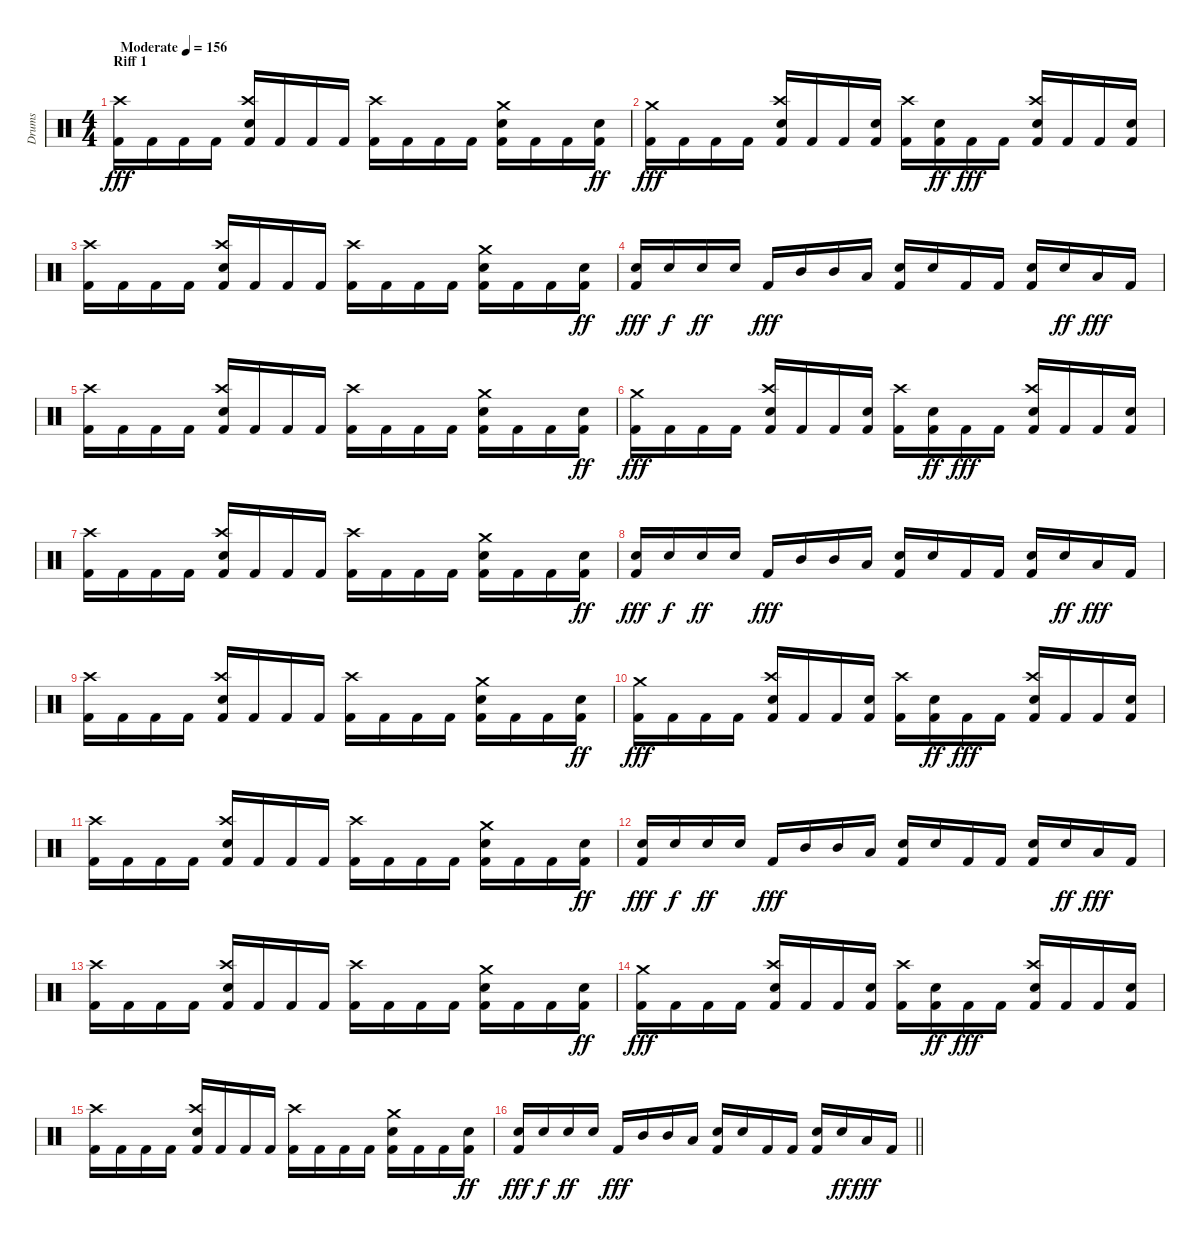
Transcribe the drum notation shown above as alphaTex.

\track ("Drums" "Drums") {instrument percussion}
\staff {score}
\articulation defaults
\ts (4 4)
\section ("" "Riff 1")
\tempo (156 "Moderate")
\clef neutral
\ks c
("Kick (hit) 2" "Crash high (hit)").16{dy fff} "Kick (hit) 2".16 "Kick (hit) 2".16 "Kick (hit) 2".16 ("Kick (hit) 2" "Snare (hit) 2" "Crash high (hit)").16 "Kick (hit) 2".16 "Kick (hit) 2".16 "Kick (hit) 2".16 ("Kick (hit) 2" "Crash high (hit)").16 "Kick (hit) 2".16 "Kick (hit) 2".16 "Kick (hit) 2".16 ("Kick (hit) 2" "Snare (hit) 2" "Crash medium (hit)").16 "Kick (hit) 2".16 "Kick (hit) 2".16 ("Kick (hit) 2" "Snare (hit) 2").16{dy ff} |
("Kick (hit) 2" "Crash medium (hit)").16{dy fff} "Kick (hit) 2".16 "Kick (hit) 2".16 "Kick (hit) 2".16 ("Kick (hit) 2" "Snare (hit) 2" "Crash high (hit)").16 "Kick (hit) 2".16 "Kick (hit) 2".16 ("Kick (hit) 2" "Snare (hit) 2").16 ("Kick (hit) 2" "Crash high (hit)").16 ("Kick (hit) 2" "Snare (hit) 2").16{dy ff} "Kick (hit) 2".16{dy fff} "Kick (hit) 2".16 ("Kick (hit) 2" "Snare (hit) 2" "Crash high (hit)").16 "Kick (hit) 2".16 "Kick (hit) 2".16 ("Kick (hit) 2" "Snare (hit) 2").16 |
("Kick (hit) 2" "Crash high (hit)").16 "Kick (hit) 2".16 "Kick (hit) 2".16 "Kick (hit) 2".16 ("Kick (hit) 2" "Snare (hit) 2" "Crash high (hit)").16 "Kick (hit) 2".16 "Kick (hit) 2".16 "Kick (hit) 2".16 ("Kick (hit) 2" "Crash high (hit)").16 "Kick (hit) 2".16 "Kick (hit) 2".16 "Kick (hit) 2".16 ("Kick (hit) 2" "Snare (hit) 2" "Crash medium (hit)").16 "Kick (hit) 2".16 "Kick (hit) 2".16 ("Kick (hit) 2" "Snare (hit) 2").16{dy ff} |
("Kick (hit) 2" "Snare (hit) 2").16{dy fff} "Snare (hit) 2".16{dy f} "Snare (hit) 2".16{dy ff} "Snare (hit) 2".16 "Kick (hit) 2".16{dy fff} "Mid Tom (hit)".16 "Mid Tom (hit)".16 "Low Tom (hit)".16 ("Kick (hit) 2" "Snare (hit) 2").16 "Snare (hit) 2".16 "Kick (hit) 2".16 "Kick (hit) 2".16 ("Kick (hit) 2" "Snare (hit) 2").16 "Snare (hit) 2".16{dy ff} "Low Tom (hit)".16{dy fff} "Kick (hit) 2".16 |
("Kick (hit) 2" "Crash high (hit)").16 "Kick (hit) 2".16 "Kick (hit) 2".16 "Kick (hit) 2".16 ("Kick (hit) 2" "Snare (hit) 2" "Crash high (hit)").16 "Kick (hit) 2".16 "Kick (hit) 2".16 "Kick (hit) 2".16 ("Kick (hit) 2" "Crash high (hit)").16 "Kick (hit) 2".16 "Kick (hit) 2".16 "Kick (hit) 2".16 ("Kick (hit) 2" "Snare (hit) 2" "Crash medium (hit)").16 "Kick (hit) 2".16 "Kick (hit) 2".16 ("Kick (hit) 2" "Snare (hit) 2").16{dy ff} |
("Kick (hit) 2" "Crash medium (hit)").16{dy fff} "Kick (hit) 2".16 "Kick (hit) 2".16 "Kick (hit) 2".16 ("Kick (hit) 2" "Snare (hit) 2" "Crash high (hit)").16 "Kick (hit) 2".16 "Kick (hit) 2".16 ("Kick (hit) 2" "Snare (hit) 2").16 ("Kick (hit) 2" "Crash high (hit)").16 ("Kick (hit) 2" "Snare (hit) 2").16{dy ff} "Kick (hit) 2".16{dy fff} "Kick (hit) 2".16 ("Kick (hit) 2" "Snare (hit) 2" "Crash high (hit)").16 "Kick (hit) 2".16 "Kick (hit) 2".16 ("Kick (hit) 2" "Snare (hit) 2").16 |
("Kick (hit) 2" "Crash high (hit)").16 "Kick (hit) 2".16 "Kick (hit) 2".16 "Kick (hit) 2".16 ("Kick (hit) 2" "Snare (hit) 2" "Crash high (hit)").16 "Kick (hit) 2".16 "Kick (hit) 2".16 "Kick (hit) 2".16 ("Kick (hit) 2" "Crash high (hit)").16 "Kick (hit) 2".16 "Kick (hit) 2".16 "Kick (hit) 2".16 ("Kick (hit) 2" "Snare (hit) 2" "Crash medium (hit)").16 "Kick (hit) 2".16 "Kick (hit) 2".16 ("Kick (hit) 2" "Snare (hit) 2").16{dy ff} |
("Kick (hit) 2" "Snare (hit) 2").16{dy fff} "Snare (hit) 2".16{dy f} "Snare (hit) 2".16{dy ff} "Snare (hit) 2".16 "Kick (hit) 2".16{dy fff} "Mid Tom (hit)".16 "Mid Tom (hit)".16 "Low Tom (hit)".16 ("Kick (hit) 2" "Snare (hit) 2").16 "Snare (hit) 2".16 "Kick (hit) 2".16 "Kick (hit) 2".16 ("Kick (hit) 2" "Snare (hit) 2").16 "Snare (hit) 2".16{dy ff} "Low Tom (hit)".16{dy fff} "Kick (hit) 2".16 |
("Kick (hit) 2" "Crash high (hit)").16 "Kick (hit) 2".16 "Kick (hit) 2".16 "Kick (hit) 2".16 ("Kick (hit) 2" "Snare (hit) 2" "Crash high (hit)").16 "Kick (hit) 2".16 "Kick (hit) 2".16 "Kick (hit) 2".16 ("Kick (hit) 2" "Crash high (hit)").16 "Kick (hit) 2".16 "Kick (hit) 2".16 "Kick (hit) 2".16 ("Kick (hit) 2" "Snare (hit) 2" "Crash medium (hit)").16 "Kick (hit) 2".16 "Kick (hit) 2".16 ("Kick (hit) 2" "Snare (hit) 2").16{dy ff} |
("Kick (hit) 2" "Crash medium (hit)").16{dy fff} "Kick (hit) 2".16 "Kick (hit) 2".16 "Kick (hit) 2".16 ("Kick (hit) 2" "Snare (hit) 2" "Crash high (hit)").16 "Kick (hit) 2".16 "Kick (hit) 2".16 ("Kick (hit) 2" "Snare (hit) 2").16 ("Kick (hit) 2" "Crash high (hit)").16 ("Kick (hit) 2" "Snare (hit) 2").16{dy ff} "Kick (hit) 2".16{dy fff} "Kick (hit) 2".16 ("Kick (hit) 2" "Snare (hit) 2" "Crash high (hit)").16 "Kick (hit) 2".16 "Kick (hit) 2".16 ("Kick (hit) 2" "Snare (hit) 2").16 |
("Kick (hit) 2" "Crash high (hit)").16 "Kick (hit) 2".16 "Kick (hit) 2".16 "Kick (hit) 2".16 ("Kick (hit) 2" "Snare (hit) 2" "Crash high (hit)").16 "Kick (hit) 2".16 "Kick (hit) 2".16 "Kick (hit) 2".16 ("Kick (hit) 2" "Crash high (hit)").16 "Kick (hit) 2".16 "Kick (hit) 2".16 "Kick (hit) 2".16 ("Kick (hit) 2" "Snare (hit) 2" "Crash medium (hit)").16 "Kick (hit) 2".16 "Kick (hit) 2".16 ("Kick (hit) 2" "Snare (hit) 2").16{dy ff} |
("Kick (hit) 2" "Snare (hit) 2").16{dy fff} "Snare (hit) 2".16{dy f} "Snare (hit) 2".16{dy ff} "Snare (hit) 2".16 "Kick (hit) 2".16{dy fff} "Mid Tom (hit)".16 "Mid Tom (hit)".16 "Low Tom (hit)".16 ("Kick (hit) 2" "Snare (hit) 2").16 "Snare (hit) 2".16 "Kick (hit) 2".16 "Kick (hit) 2".16 ("Kick (hit) 2" "Snare (hit) 2").16 "Snare (hit) 2".16{dy ff} "Low Tom (hit)".16{dy fff} "Kick (hit) 2".16 |
("Kick (hit) 2" "Crash high (hit)").16 "Kick (hit) 2".16 "Kick (hit) 2".16 "Kick (hit) 2".16 ("Kick (hit) 2" "Snare (hit) 2" "Crash high (hit)").16 "Kick (hit) 2".16 "Kick (hit) 2".16 "Kick (hit) 2".16 ("Kick (hit) 2" "Crash high (hit)").16 "Kick (hit) 2".16 "Kick (hit) 2".16 "Kick (hit) 2".16 ("Kick (hit) 2" "Snare (hit) 2" "Crash medium (hit)").16 "Kick (hit) 2".16 "Kick (hit) 2".16 ("Kick (hit) 2" "Snare (hit) 2").16{dy ff} |
("Kick (hit) 2" "Crash medium (hit)").16{dy fff} "Kick (hit) 2".16 "Kick (hit) 2".16 "Kick (hit) 2".16 ("Kick (hit) 2" "Snare (hit) 2" "Crash high (hit)").16 "Kick (hit) 2".16 "Kick (hit) 2".16 ("Kick (hit) 2" "Snare (hit) 2").16 ("Kick (hit) 2" "Crash high (hit)").16 ("Kick (hit) 2" "Snare (hit) 2").16{dy ff} "Kick (hit) 2".16{dy fff} "Kick (hit) 2".16 ("Kick (hit) 2" "Snare (hit) 2" "Crash high (hit)").16 "Kick (hit) 2".16 "Kick (hit) 2".16 ("Kick (hit) 2" "Snare (hit) 2").16 |
("Kick (hit) 2" "Crash high (hit)").16 "Kick (hit) 2".16 "Kick (hit) 2".16 "Kick (hit) 2".16 ("Kick (hit) 2" "Snare (hit) 2" "Crash high (hit)").16 "Kick (hit) 2".16 "Kick (hit) 2".16 "Kick (hit) 2".16 ("Kick (hit) 2" "Crash high (hit)").16 "Kick (hit) 2".16 "Kick (hit) 2".16 "Kick (hit) 2".16 ("Kick (hit) 2" "Snare (hit) 2" "Crash medium (hit)").16 "Kick (hit) 2".16 "Kick (hit) 2".16 ("Kick (hit) 2" "Snare (hit) 2").16{dy ff} |
\barLineRight lightlight
("Kick (hit) 2" "Snare (hit) 2").16{dy fff} "Snare (hit) 2".16{dy f} "Snare (hit) 2".16{dy ff} "Snare (hit) 2".16 "Kick (hit) 2".16{dy fff} "Mid Tom (hit)".16 "Mid Tom (hit)".16 "Low Tom (hit)".16 ("Kick (hit) 2" "Snare (hit) 2").16 "Snare (hit) 2".16 "Kick (hit) 2".16 "Kick (hit) 2".16 ("Kick (hit) 2" "Snare (hit) 2").16 "Snare (hit) 2".16{dy ff} "Low Tom (hit)".16{dy fff} "Kick (hit) 2".16
